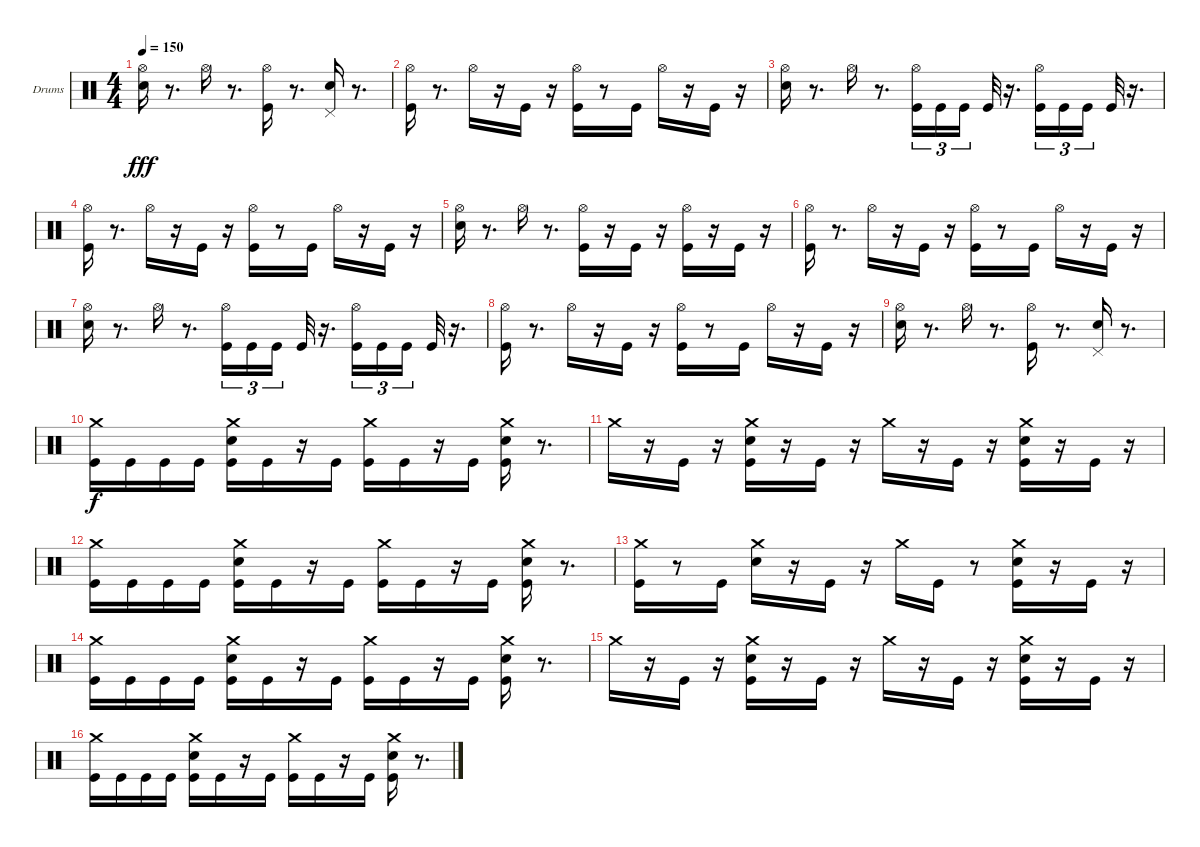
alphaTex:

\bracketExtendMode groupsimilarinstruments
\firstSystemTrackNameOrientation horizontal
\otherSystemsTrackNameOrientation horizontal
\track ("Rolo" "Drums") {instrument percussion}
\staff {score}
\articulation defaults
\ts (4 4)
\tempo 150
\clef neutral
\ks c
("Snare (hit) 2" "Hi-Hat (open)").16{dy fff} r.8{d} "Hi-Hat (open)".16 r.8{d} ("Kick (hit)" "Hi-Hat (open)").16 r.8{d} ("Snare (hit) 2" "Pedal Hi-Hat (hit)").16 r.8{d} |
("Kick (hit)" "Hi-Hat (open)").16 r.8{d} "Hi-Hat (open)".16 r.16 "Kick (hit)".16 r.16 ("Kick (hit)" "Hi-Hat (open)").16 r.8 "Kick (hit)".16 "Hi-Hat (open)".16 r.16 "Kick (hit)".16 r.16 |
("Snare (hit) 2" "Hi-Hat (open)").16 r.8{d} "Hi-Hat (open)".16 r.8{d} ("Kick (hit)" "Hi-Hat (open)").16{tu (3 2)} "Kick (hit)".16{tu (3 2)} "Kick (hit)".16{tu (3 2)} "Kick (hit)".32 r.16{d} ("Kick (hit)" "Hi-Hat (open)").16{tu (3 2)} "Kick (hit)".16{tu (3 2)} "Kick (hit)".16{tu (3 2)} "Kick (hit)".32 r.16{d} |
("Kick (hit)" "Hi-Hat (open)").16 r.8{d} "Hi-Hat (open)".16 r.16 "Kick (hit)".16 r.16 ("Kick (hit)" "Hi-Hat (open)").16 r.8 "Kick (hit)".16 "Hi-Hat (open)".16 r.16 "Kick (hit)".16 r.16 |
("Snare (hit) 2" "Hi-Hat (open)").16 r.8{d} "Hi-Hat (open)".16 r.8{d} ("Kick (hit)" "Hi-Hat (open)").16 r.16 "Kick (hit)".16 r.16 ("Kick (hit)" "Hi-Hat (open)").16 r.16 "Kick (hit)".16 r.16 |
("Kick (hit)" "Hi-Hat (open)").16 r.8{d} "Hi-Hat (open)".16 r.16 "Kick (hit)".16 r.16 ("Kick (hit)" "Hi-Hat (open)").16 r.8 "Kick (hit)".16 "Hi-Hat (open)".16 r.16 "Kick (hit)".16 r.16 |
("Snare (hit) 2" "Hi-Hat (open)").16 r.8{d} "Hi-Hat (open)".16 r.8{d} ("Kick (hit)" "Hi-Hat (open)").16{tu (3 2)} "Kick (hit)".16{tu (3 2)} "Kick (hit)".16{tu (3 2)} "Kick (hit)".32 r.16{d} ("Kick (hit)" "Hi-Hat (open)").16{tu (3 2)} "Kick (hit)".16{tu (3 2)} "Kick (hit)".16{tu (3 2)} "Kick (hit)".32 r.16{d} |
("Kick (hit)" "Hi-Hat (open)").16 r.8{d} "Hi-Hat (open)".16 r.16 "Kick (hit)".16 r.16 ("Kick (hit)" "Hi-Hat (open)").16 r.8 "Kick (hit)".16 "Hi-Hat (open)".16 r.16 "Kick (hit)".16 r.16 |
("Snare (hit) 2" "Hi-Hat (open)").16 r.8{d} "Hi-Hat (open)".16 r.8{d} ("Kick (hit)" "Hi-Hat (open)").16 r.8{d} ("Snare (hit) 2" "Pedal Hi-Hat (hit)").16 r.8{d} |
("Crash medium (hit)" "Kick (hit)").16{dy f} "Kick (hit)".16 "Kick (hit)".16 "Kick (hit)".16 ("Crash medium (hit)" "Snare (hit) 2" "Kick (hit)").16 "Kick (hit)".16 r.16 "Kick (hit)".16 ("Crash medium (hit)" "Kick (hit)").16 "Kick (hit)".16 r.16 "Kick (hit)".16 ("Crash medium (hit)" "Snare (hit) 2" "Kick (hit)").16 r.8{d} |
"Crash medium (hit)".16 r.16 "Kick (hit)".16 r.16 ("Crash medium (hit)" "Snare (hit) 2" "Kick (hit)").16 r.16 "Kick (hit)".16 r.16 "Crash medium (hit)".16 r.16 "Kick (hit)".16 r.16 ("Crash medium (hit)" "Snare (hit) 2" "Kick (hit)").16 r.16 "Kick (hit)".16 r.16 |
("Crash medium (hit)" "Kick (hit)").16 "Kick (hit)".16 "Kick (hit)".16 "Kick (hit)".16 ("Crash medium (hit)" "Snare (hit) 2" "Kick (hit)").16 "Kick (hit)".16 r.16 "Kick (hit)".16 ("Crash medium (hit)" "Kick (hit)").16 "Kick (hit)".16 r.16 "Kick (hit)".16 ("Crash medium (hit)" "Snare (hit) 2" "Kick (hit)").16 r.8{d} |
("Crash medium (hit)" "Kick (hit)").16 r.8 "Kick (hit)".16 ("Crash medium (hit)" "Snare (hit) 2").16 r.16 "Kick (hit)".16 r.16 "Crash medium (hit)".16 "Kick (hit)".16 r.8 ("Crash medium (hit)" "Snare (hit) 2" "Kick (hit)").16 r.16 "Kick (hit)".16 r.16 |
("Crash medium (hit)" "Kick (hit)").16 "Kick (hit)".16 "Kick (hit)".16 "Kick (hit)".16 ("Crash medium (hit)" "Snare (hit) 2" "Kick (hit)").16 "Kick (hit)".16 r.16 "Kick (hit)".16 ("Crash medium (hit)" "Kick (hit)").16 "Kick (hit)".16 r.16 "Kick (hit)".16 ("Crash medium (hit)" "Snare (hit) 2" "Kick (hit)").16 r.8{d} |
"Crash medium (hit)".16 r.16 "Kick (hit)".16 r.16 ("Crash medium (hit)" "Snare (hit) 2" "Kick (hit)").16 r.16 "Kick (hit)".16 r.16 "Crash medium (hit)".16 r.16 "Kick (hit)".16 r.16 ("Crash medium (hit)" "Snare (hit) 2" "Kick (hit)").16 r.16 "Kick (hit)".16 r.16 |
("Crash medium (hit)" "Kick (hit)").16 "Kick (hit)".16 "Kick (hit)".16 "Kick (hit)".16 ("Crash medium (hit)" "Snare (hit) 2" "Kick (hit)").16 "Kick (hit)".16 r.16 "Kick (hit)".16 ("Crash medium (hit)" "Kick (hit)").16 "Kick (hit)".16 r.16 "Kick (hit)".16 ("Crash medium (hit)" "Snare (hit) 2" "Kick (hit)").16 r.8{d}
